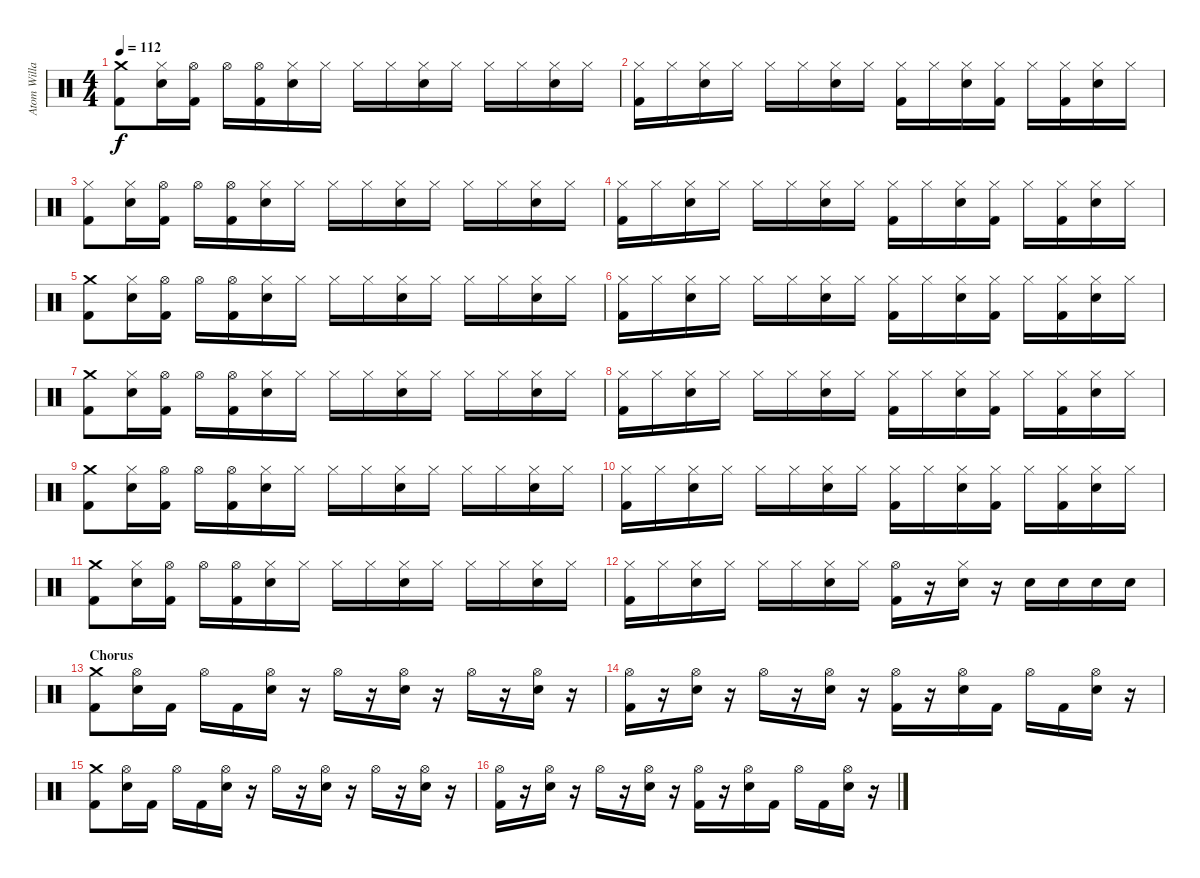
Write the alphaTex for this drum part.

\track ("Atom Willard Drums" "Atom Willa") {instrument percussion}
\staff {score}
\articulation defaults
\ts (4 4)
\tempo 112
\clef neutral
\ks c
("Crash medium (hit)" "Kick (hit) 2").8{dy f} ("Hi-Hat (closed)" "Electric Snare (hit)").16 ("Hi-Hat (open)" "Kick (hit) 2").16 "Hi-Hat (open)".16 ("Hi-Hat (open)" "Kick (hit) 2").16 ("Hi-Hat (closed)" "Electric Snare (hit)").16 "Hi-Hat (closed)".16 "Hi-Hat (closed)".16 "Hi-Hat (closed)".16 ("Hi-Hat (closed)" "Electric Snare (hit)").16 "Hi-Hat (closed)".16 "Hi-Hat (closed)".16 "Hi-Hat (closed)".16 ("Hi-Hat (closed)" "Electric Snare (hit)").16 "Hi-Hat (closed)".16 |
("Hi-Hat (closed)" "Kick (hit) 2").16 "Hi-Hat (closed)".16 ("Hi-Hat (closed)" "Electric Snare (hit)").16 "Hi-Hat (closed)".16 "Hi-Hat (closed)".16 "Hi-Hat (closed)".16 ("Hi-Hat (closed)" "Electric Snare (hit)").16 "Hi-Hat (closed)".16 ("Hi-Hat (closed)" "Kick (hit) 2").16 "Hi-Hat (closed)".16 ("Hi-Hat (closed)" "Electric Snare (hit)").16 ("Hi-Hat (closed)" "Kick (hit) 2").16 "Hi-Hat (closed)".16 ("Hi-Hat (closed)" "Kick (hit) 2").16 ("Hi-Hat (closed)" "Electric Snare (hit)").16 "Hi-Hat (closed)".16 |
("Hi-Hat (closed)" "Kick (hit) 2").8 ("Hi-Hat (closed)" "Electric Snare (hit)").16 ("Hi-Hat (open)" "Kick (hit) 2").16 "Hi-Hat (open)".16 ("Hi-Hat (open)" "Kick (hit) 2").16 ("Hi-Hat (closed)" "Electric Snare (hit)").16 "Hi-Hat (closed)".16 "Hi-Hat (closed)".16 "Hi-Hat (closed)".16 ("Hi-Hat (closed)" "Electric Snare (hit)").16 "Hi-Hat (closed)".16 "Hi-Hat (closed)".16 "Hi-Hat (closed)".16 ("Hi-Hat (closed)" "Electric Snare (hit)").16 "Hi-Hat (closed)".16 |
("Hi-Hat (closed)" "Kick (hit) 2").16 "Hi-Hat (closed)".16 ("Hi-Hat (closed)" "Electric Snare (hit)").16 "Hi-Hat (closed)".16 "Hi-Hat (closed)".16 "Hi-Hat (closed)".16 ("Hi-Hat (closed)" "Electric Snare (hit)").16 "Hi-Hat (closed)".16 ("Hi-Hat (closed)" "Kick (hit) 2").16 "Hi-Hat (closed)".16 ("Hi-Hat (closed)" "Electric Snare (hit)").16 ("Hi-Hat (closed)" "Kick (hit) 2").16 "Hi-Hat (closed)".16 ("Hi-Hat (closed)" "Kick (hit) 2").16 ("Hi-Hat (closed)" "Electric Snare (hit)").16 "Hi-Hat (closed)".16 |
("Crash medium (hit)" "Kick (hit) 2").8 ("Hi-Hat (closed)" "Electric Snare (hit)").16 ("Hi-Hat (open)" "Kick (hit) 2").16 "Hi-Hat (open)".16 ("Hi-Hat (open)" "Kick (hit) 2").16 ("Hi-Hat (closed)" "Electric Snare (hit)").16 "Hi-Hat (closed)".16 "Hi-Hat (closed)".16 "Hi-Hat (closed)".16 ("Hi-Hat (closed)" "Electric Snare (hit)").16 "Hi-Hat (closed)".16 "Hi-Hat (closed)".16 "Hi-Hat (closed)".16 ("Hi-Hat (closed)" "Electric Snare (hit)").16 "Hi-Hat (closed)".16 |
("Hi-Hat (closed)" "Kick (hit) 2").16 "Hi-Hat (closed)".16 ("Hi-Hat (closed)" "Electric Snare (hit)").16 "Hi-Hat (closed)".16 "Hi-Hat (closed)".16 "Hi-Hat (closed)".16 ("Hi-Hat (closed)" "Electric Snare (hit)").16 "Hi-Hat (closed)".16 ("Hi-Hat (closed)" "Kick (hit) 2").16 "Hi-Hat (closed)".16 ("Hi-Hat (closed)" "Electric Snare (hit)").16 ("Hi-Hat (closed)" "Kick (hit) 2").16 "Hi-Hat (closed)".16 ("Hi-Hat (closed)" "Kick (hit) 2").16 ("Hi-Hat (closed)" "Electric Snare (hit)").16 "Hi-Hat (closed)".16 |
("Crash medium (hit)" "Kick (hit) 2").8 ("Hi-Hat (closed)" "Electric Snare (hit)").16 ("Hi-Hat (open)" "Kick (hit) 2").16 "Hi-Hat (open)".16 ("Hi-Hat (open)" "Kick (hit) 2").16 ("Hi-Hat (closed)" "Electric Snare (hit)").16 "Hi-Hat (closed)".16 "Hi-Hat (closed)".16 "Hi-Hat (closed)".16 ("Hi-Hat (closed)" "Electric Snare (hit)").16 "Hi-Hat (closed)".16 "Hi-Hat (closed)".16 "Hi-Hat (closed)".16 ("Hi-Hat (closed)" "Electric Snare (hit)").16 "Hi-Hat (closed)".16 |
("Hi-Hat (closed)" "Kick (hit) 2").16 "Hi-Hat (closed)".16 ("Hi-Hat (closed)" "Electric Snare (hit)").16 "Hi-Hat (closed)".16 "Hi-Hat (closed)".16 "Hi-Hat (closed)".16 ("Hi-Hat (closed)" "Electric Snare (hit)").16 "Hi-Hat (closed)".16 ("Hi-Hat (closed)" "Kick (hit) 2").16 "Hi-Hat (closed)".16 ("Hi-Hat (closed)" "Electric Snare (hit)").16 ("Hi-Hat (closed)" "Kick (hit) 2").16 "Hi-Hat (closed)".16 ("Hi-Hat (closed)" "Kick (hit) 2").16 ("Hi-Hat (closed)" "Electric Snare (hit)").16 "Hi-Hat (closed)".16 |
("Crash medium (hit)" "Kick (hit) 2").8 ("Hi-Hat (closed)" "Electric Snare (hit)").16 ("Hi-Hat (open)" "Kick (hit) 2").16 "Hi-Hat (open)".16 ("Hi-Hat (open)" "Kick (hit) 2").16 ("Hi-Hat (closed)" "Electric Snare (hit)").16 "Hi-Hat (closed)".16 "Hi-Hat (closed)".16 "Hi-Hat (closed)".16 ("Hi-Hat (closed)" "Electric Snare (hit)").16 "Hi-Hat (closed)".16 "Hi-Hat (closed)".16 "Hi-Hat (closed)".16 ("Hi-Hat (closed)" "Electric Snare (hit)").16 "Hi-Hat (closed)".16 |
("Hi-Hat (closed)" "Kick (hit) 2").16 "Hi-Hat (closed)".16 ("Hi-Hat (closed)" "Electric Snare (hit)").16 "Hi-Hat (closed)".16 "Hi-Hat (closed)".16 "Hi-Hat (closed)".16 ("Hi-Hat (closed)" "Electric Snare (hit)").16 "Hi-Hat (closed)".16 ("Hi-Hat (closed)" "Kick (hit) 2").16 "Hi-Hat (closed)".16 ("Hi-Hat (closed)" "Electric Snare (hit)").16 ("Hi-Hat (closed)" "Kick (hit) 2").16 "Hi-Hat (closed)".16 ("Hi-Hat (closed)" "Kick (hit) 2").16 ("Hi-Hat (closed)" "Electric Snare (hit)").16 "Hi-Hat (closed)".16 |
("Crash medium (hit)" "Kick (hit) 2").8 ("Hi-Hat (closed)" "Electric Snare (hit)").16 ("Hi-Hat (open)" "Kick (hit) 2").16 "Hi-Hat (open)".16 ("Hi-Hat (open)" "Kick (hit) 2").16 ("Hi-Hat (closed)" "Electric Snare (hit)").16 "Hi-Hat (closed)".16 "Hi-Hat (closed)".16 "Hi-Hat (closed)".16 ("Hi-Hat (closed)" "Electric Snare (hit)").16 "Hi-Hat (closed)".16 "Hi-Hat (closed)".16 "Hi-Hat (closed)".16 ("Hi-Hat (closed)" "Electric Snare (hit)").16 "Hi-Hat (closed)".16 |
("Hi-Hat (closed)" "Kick (hit) 2").16 "Hi-Hat (closed)".16 ("Hi-Hat (closed)" "Electric Snare (hit)").16 "Hi-Hat (closed)".16 "Hi-Hat (closed)".16 "Hi-Hat (closed)".16 ("Hi-Hat (closed)" "Electric Snare (hit)").16 "Hi-Hat (closed)".16 ("Hi-Hat (open)" "Kick (hit) 2").16 r.16 ("Hi-Hat (closed)" "Electric Snare (hit)").16 r.16 "Electric Snare (hit)".16 "Electric Snare (hit)".16 "Electric Snare (hit)".16 "Electric Snare (hit)".16 |
\section ("" "Chorus")
("Crash medium (hit)" "Kick (hit) 2").8 ("Hi-Hat (open)" "Electric Snare (hit)").16 "Kick (hit) 2".16 "Hi-Hat (open)".16 "Kick (hit) 2".16 ("Hi-Hat (open)" "Electric Snare (hit)").16 r.16 "Hi-Hat (open)".16 r.16 ("Hi-Hat (open)" "Electric Snare (hit)").16 r.16 "Hi-Hat (open)".16 r.16 ("Hi-Hat (open)" "Electric Snare (hit)").16 r.16 |
("Hi-Hat (open)" "Kick (hit) 2").16 r.16 ("Hi-Hat (open)" "Electric Snare (hit)").16 r.16 "Hi-Hat (open)".16 r.16 ("Hi-Hat (open)" "Electric Snare (hit)").16 r.16 ("Hi-Hat (open)" "Kick (hit) 2").16 r.16 ("Hi-Hat (open)" "Electric Snare (hit)").16 "Kick (hit) 2".16 "Hi-Hat (open)".16 "Kick (hit) 2".16 ("Hi-Hat (open)" "Electric Snare (hit)").16 r.16 |
("Crash medium (hit)" "Kick (hit) 2").8 ("Hi-Hat (open)" "Electric Snare (hit)").16 "Kick (hit) 2".16 "Hi-Hat (open)".16 "Kick (hit) 2".16 ("Hi-Hat (open)" "Electric Snare (hit)").16 r.16 "Hi-Hat (open)".16 r.16 ("Hi-Hat (open)" "Electric Snare (hit)").16 r.16 "Hi-Hat (open)".16 r.16 ("Hi-Hat (open)" "Electric Snare (hit)").16 r.16 |
("Hi-Hat (open)" "Kick (hit) 2").16 r.16 ("Hi-Hat (open)" "Electric Snare (hit)").16 r.16 "Hi-Hat (open)".16 r.16 ("Hi-Hat (open)" "Electric Snare (hit)").16 r.16 ("Hi-Hat (open)" "Kick (hit) 2").16 r.16 ("Hi-Hat (open)" "Electric Snare (hit)").16 "Kick (hit) 2".16 "Hi-Hat (open)".16 "Kick (hit) 2".16 ("Hi-Hat (open)" "Electric Snare (hit)").16 r.16
